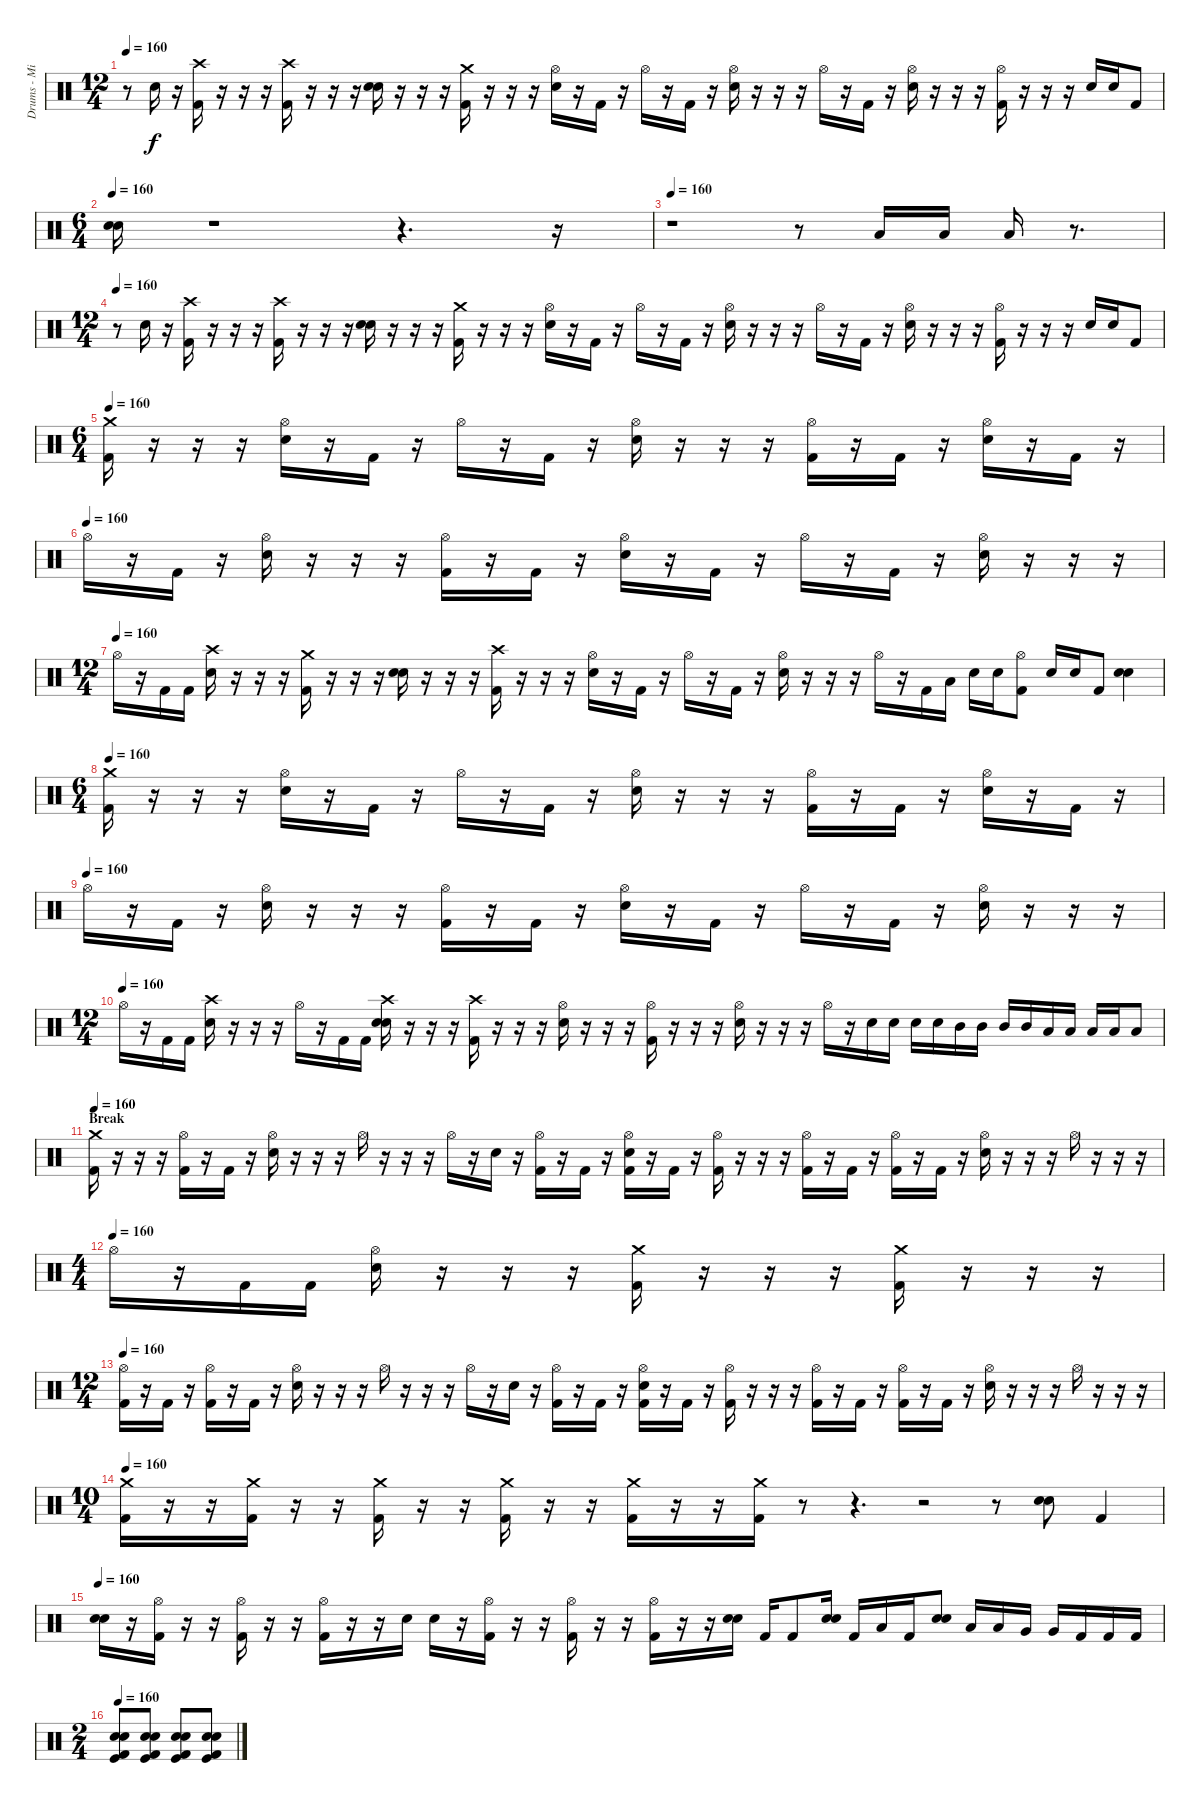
\track ("Drums - Mikkey Dee" "Drums - Mi") {instrument percussion}
\staff {score}
\articulation defaults
\ts (12 4)
\tempo 160
\clef neutral
\ks c
r.8{dy f} "Electric Snare (hit)".16 r.16 ("Crash high (hit)" "Kick (hit) 2").16 r.16 r.16 r.16 ("Crash high (hit)" "Kick (hit) 2").16 r.16 r.16 r.16 ("Electric Snare (hit)" "Snare (hit) 2").16 r.16 r.16 r.16 ("Crash medium (hit)" "Kick (hit) 2").16 r.16 r.16 r.16 ("Hi-Hat (open)" "Electric Snare (hit)").16 r.16 "Kick (hit) 2".16 r.16 "Hi-Hat (open)".16 r.16 "Kick (hit) 2".16 r.16 ("Hi-Hat (open)" "Electric Snare (hit)").16 r.16 r.16 r.16 "Hi-Hat (open)".16 r.16 "Kick (hit) 2".16 r.16 ("Hi-Hat (open)" "Electric Snare (hit)").16 r.16 r.16 r.16 ("Hi-Hat (open)" "Kick (hit) 2").16 r.16 r.16 r.16 "Electric Snare (hit)".16 "Electric Snare (hit)".16 "Kick (hit) 2".8 |
\ts (6 4)
\tempo 160
("Snare (hit) 2" "Electric Snare (hit)").16 r.1 r.4{d} r.16 |
\tempo 160
r.1 r.8 "Low Tom (hit)".16 "Low Tom (hit)".16 "Low Tom (hit)".16 r.8{d} |
\ts (12 4)
\tempo 160
r.8 "Electric Snare (hit)".16 r.16 ("Crash high (hit)" "Kick (hit) 2").16 r.16 r.16 r.16 ("Crash high (hit)" "Kick (hit) 2").16 r.16 r.16 r.16 ("Electric Snare (hit)" "Snare (hit) 2").16 r.16 r.16 r.16 ("Crash medium (hit)" "Kick (hit) 2").16 r.16 r.16 r.16 ("Hi-Hat (open)" "Electric Snare (hit)").16 r.16 "Kick (hit) 2".16 r.16 "Hi-Hat (open)".16 r.16 "Kick (hit) 2".16 r.16 ("Hi-Hat (open)" "Electric Snare (hit)").16 r.16 r.16 r.16 "Hi-Hat (open)".16 r.16 "Kick (hit) 2".16 r.16 ("Hi-Hat (open)" "Electric Snare (hit)").16 r.16 r.16 r.16 ("Hi-Hat (open)" "Kick (hit) 2").16 r.16 r.16 r.16 "Electric Snare (hit)".16 "Electric Snare (hit)".16 "Kick (hit) 2".8 |
\ts (6 4)
\tempo 160
("Crash medium (hit)" "Kick (hit) 2").16 r.16 r.16 r.16 ("Hi-Hat (open)" "Electric Snare (hit)").16 r.16 "Kick (hit) 2".16 r.16 "Hi-Hat (open)".16 r.16 "Kick (hit) 2".16 r.16 ("Hi-Hat (open)" "Electric Snare (hit)").16 r.16 r.16 r.16 ("Hi-Hat (open)" "Kick (hit) 2").16 r.16 "Kick (hit) 2".16 r.16 ("Hi-Hat (open)" "Electric Snare (hit)").16 r.16 "Kick (hit) 2".16 r.16 |
\tempo (160)
"Hi-Hat (open)".16 r.16 "Kick (hit) 2".16 r.16 ("Hi-Hat (open)" "Electric Snare (hit)").16 r.16 r.16 r.16 ("Hi-Hat (open)" "Kick (hit) 2").16 r.16 "Kick (hit) 2".16 r.16 ("Hi-Hat (open)" "Electric Snare (hit)").16 r.16 "Kick (hit) 2".16 r.16 "Hi-Hat (open)".16 r.16 "Kick (hit) 2".16 r.16 ("Hi-Hat (open)" "Electric Snare (hit)").16 r.16 r.16 r.16 |
\ts (12 4)
\tempo (160)
"Hi-Hat (open)".16 r.16 "Kick (hit) 2".16 "Kick (hit) 2".16 ("Crash high (hit)" "Electric Snare (hit)").16 r.16 r.16 r.16 ("Crash medium (hit)" "Kick (hit) 2").16 r.16 r.16 r.16 ("Electric Snare (hit)" "Snare (hit) 2").16 r.16 r.16 r.16 ("Crash high (hit)" "Kick (hit) 2").16 r.16 r.16 r.16 ("Hi-Hat (open)" "Electric Snare (hit)").16 r.16 "Kick (hit) 2".16 r.16 "Hi-Hat (open)".16 r.16 "Kick (hit) 2".16 r.16 ("Hi-Hat (open)" "Electric Snare (hit)").16 r.16 r.16 r.16 "Hi-Hat (open)".16 r.16 "Kick (hit) 2".16 "Low Tom (hit)".16 "Electric Snare (hit)".16 "Electric Snare (hit)".16 ("Hi-Hat (open)" "Kick (hit) 2").8 "Electric Snare (hit)".16 "Electric Snare (hit)".16 "Kick (hit) 2".8 ("Electric Snare (hit)" "Snare (hit) 2").4 |
\ts (6 4)
\tempo 160
("Crash medium (hit)" "Kick (hit) 2").16 r.16 r.16 r.16 ("Hi-Hat (open)" "Electric Snare (hit)").16 r.16 "Kick (hit) 2".16 r.16 "Hi-Hat (open)".16 r.16 "Kick (hit) 2".16 r.16 ("Hi-Hat (open)" "Electric Snare (hit)").16 r.16 r.16 r.16 ("Hi-Hat (open)" "Kick (hit) 2").16 r.16 "Kick (hit) 2".16 r.16 ("Hi-Hat (open)" "Electric Snare (hit)").16 r.16 "Kick (hit) 2".16 r.16 |
\tempo (160)
"Hi-Hat (open)".16 r.16 "Kick (hit) 2".16 r.16 ("Hi-Hat (open)" "Electric Snare (hit)").16 r.16 r.16 r.16 ("Hi-Hat (open)" "Kick (hit) 2").16 r.16 "Kick (hit) 2".16 r.16 ("Hi-Hat (open)" "Electric Snare (hit)").16 r.16 "Kick (hit) 2".16 r.16 "Hi-Hat (open)".16 r.16 "Kick (hit) 2".16 r.16 ("Hi-Hat (open)" "Electric Snare (hit)").16 r.16 r.16 r.16 |
\ts (12 4)
\tempo (160)
"Hi-Hat (open)".16 r.16 "Kick (hit) 2".16 "Kick (hit) 2".16 ("Crash high (hit)" "Electric Snare (hit)").16 r.16 r.16 r.16 "Hi-Hat (open)".16 r.16 "Kick (hit) 2".16 "Kick (hit) 2".16 ("Crash high (hit)" "Electric Snare (hit)" "Snare (hit) 2").16 r.16 r.16 r.16 ("Crash high (hit)" "Kick (hit) 2").16 r.16 r.16 r.16 ("Hi-Hat (open)" "Electric Snare (hit)").16 r.16 r.16 r.16 ("Hi-Hat (open)" "Kick (hit) 2").16 r.16 r.16 r.16 ("Hi-Hat (open)" "Electric Snare (hit)").16 r.16 r.16 r.16 "Hi-Hat (open)".16 r.16 "Electric Snare (hit)".16 "Electric Snare (hit)".16 "Electric Snare (hit)".16 "Electric Snare (hit)".16 "Mid Tom (hit)".16 "Mid Tom (hit)".16 "Mid Tom (hit)".16 "Mid Tom (hit)".16 "Low Tom (hit)".16 "Low Tom (hit)".16 "Low Tom (hit)".16 "Low Tom (hit)".16 "Low Tom (hit)".8 |
\section ("" "Break")
\tempo 160
("Crash medium (hit)" "Kick (hit) 2").16 r.16 r.16 r.16 ("Hi-Hat (open)" "Kick (hit) 2").16 r.16 "Kick (hit) 2".16 r.16 ("Hi-Hat (open)" "Electric Snare (hit)").16 r.16 r.16 r.16 "Hi-Hat (open)".16 r.16 r.16 r.16 "Hi-Hat (open)".16 r.16 "Electric Snare (hit)".16 r.16 ("Hi-Hat (open)" "Kick (hit) 2").16 r.16 "Kick (hit) 2".16 r.16 ("Hi-Hat (open)" "Electric Snare (hit)" "Kick (hit) 2").16 r.16 "Kick (hit) 2".16 r.16 ("Hi-Hat (open)" "Kick (hit) 2").16 r.16 r.16 r.16 ("Hi-Hat (open)" "Kick (hit) 2").16 r.16 "Kick (hit) 2".16 r.16 ("Hi-Hat (open)" "Kick (hit) 2").16 r.16 "Kick (hit) 2".16 r.16 ("Hi-Hat (open)" "Electric Snare (hit)").16 r.16 r.16 r.16 "Hi-Hat (open)".16 r.16 r.16 r.16 |
\ts (4 4)
\tempo (160)
"Hi-Hat (open)".16 r.16 "Kick (hit) 2".16 "Kick (hit) 2".16 ("Hi-Hat (open)" "Electric Snare (hit)").16 r.16 r.16 r.16 ("Crash medium (hit)" "Kick (hit) 2").16 r.16 r.16 r.16 ("Crash medium (hit)" "Kick (hit) 2").16 r.16 r.16 r.16 |
\ts (12 4)
\tempo 160
("Hi-Hat (open)" "Kick (hit) 2").16 r.16 "Kick (hit) 2".16 r.16 ("Hi-Hat (open)" "Kick (hit) 2").16 r.16 "Kick (hit) 2".16 r.16 ("Hi-Hat (open)" "Electric Snare (hit)").16 r.16 r.16 r.16 "Hi-Hat (open)".16 r.16 r.16 r.16 "Hi-Hat (open)".16 r.16 "Electric Snare (hit)".16 r.16 ("Hi-Hat (open)" "Kick (hit) 2").16 r.16 "Kick (hit) 2".16 r.16 ("Hi-Hat (open)" "Electric Snare (hit)" "Kick (hit) 2").16 r.16 "Kick (hit) 2".16 r.16 ("Hi-Hat (open)" "Kick (hit) 2").16 r.16 r.16 r.16 ("Hi-Hat (open)" "Kick (hit) 2").16 r.16 "Kick (hit) 2".16 r.16 ("Hi-Hat (open)" "Kick (hit) 2").16 r.16 "Kick (hit) 2".16 r.16 ("Hi-Hat (open)" "Electric Snare (hit)").16 r.16 r.16 r.16 "Hi-Hat (open)".16 r.16 r.16 r.16 |
\ts (10 4)
\tempo 160
("Crash medium (hit)" "Kick (hit) 2").16 r.16 r.16 ("Crash medium (hit)" "Kick (hit) 2").16 r.16 r.16 ("Crash medium (hit)" "Kick (hit) 2").16 r.16 r.16 ("Crash medium (hit)" "Kick (hit) 2").16 r.16 r.16 ("Crash medium (hit)" "Kick (hit) 2").16 r.16 r.16 ("Crash medium (hit)" "Kick (hit) 2").16 r.8 r.4{d} r.2 r.8 ("Snare (hit) 2" "Electric Snare (hit)").8 "Kick (hit) 2".4 |
\tempo 160
("Electric Snare (hit)" "Snare (hit) 2").16 r.16 ("Hi-Hat (open)" "Kick (hit) 2").16 r.16 r.16 ("Hi-Hat (open)" "Kick (hit) 2").16 r.16 r.16 ("Hi-Hat (open)" "Kick (hit) 2").16 r.16 r.16 "Electric Snare (hit)".16 "Electric Snare (hit)".16 r.16 ("Hi-Hat (open)" "Kick (hit) 2").16 r.16 r.16 ("Hi-Hat (open)" "Kick (hit) 2").16 r.16 r.16 ("Hi-Hat (open)" "Kick (hit) 2").16 r.16 r.16 ("Electric Snare (hit)" "Snare (hit) 2").16 "Kick (hit) 2".16 "Kick (hit) 2".8 ("Snare (hit) 2" "Electric Snare (hit)").16 "Kick (hit) 2".16 "Low Tom (hit)".16 "Kick (hit) 2".16 ("Electric Snare (hit)" "Snare (hit) 2").8 "Low Tom (hit)".16 "Low Tom (hit)".16 "Very Low Tom (hit)".16 "Very Low Tom (hit)".16 "Kick (hit) 2".16 "Kick (hit) 2".16 "Kick (hit) 2".16 |
\ts (2 4)
\tempo 160
("Electric Snare (hit)" "Snare (hit) 2" "Kick (hit)" "Kick (hit) 2").8 ("Electric Snare (hit)" "Snare (hit) 2" "Kick (hit)" "Kick (hit) 2").8 ("Electric Snare (hit)" "Snare (hit) 2" "Kick (hit)" "Kick (hit) 2").8 ("Electric Snare (hit)" "Snare (hit) 2" "Kick (hit)" "Kick (hit) 2").8
